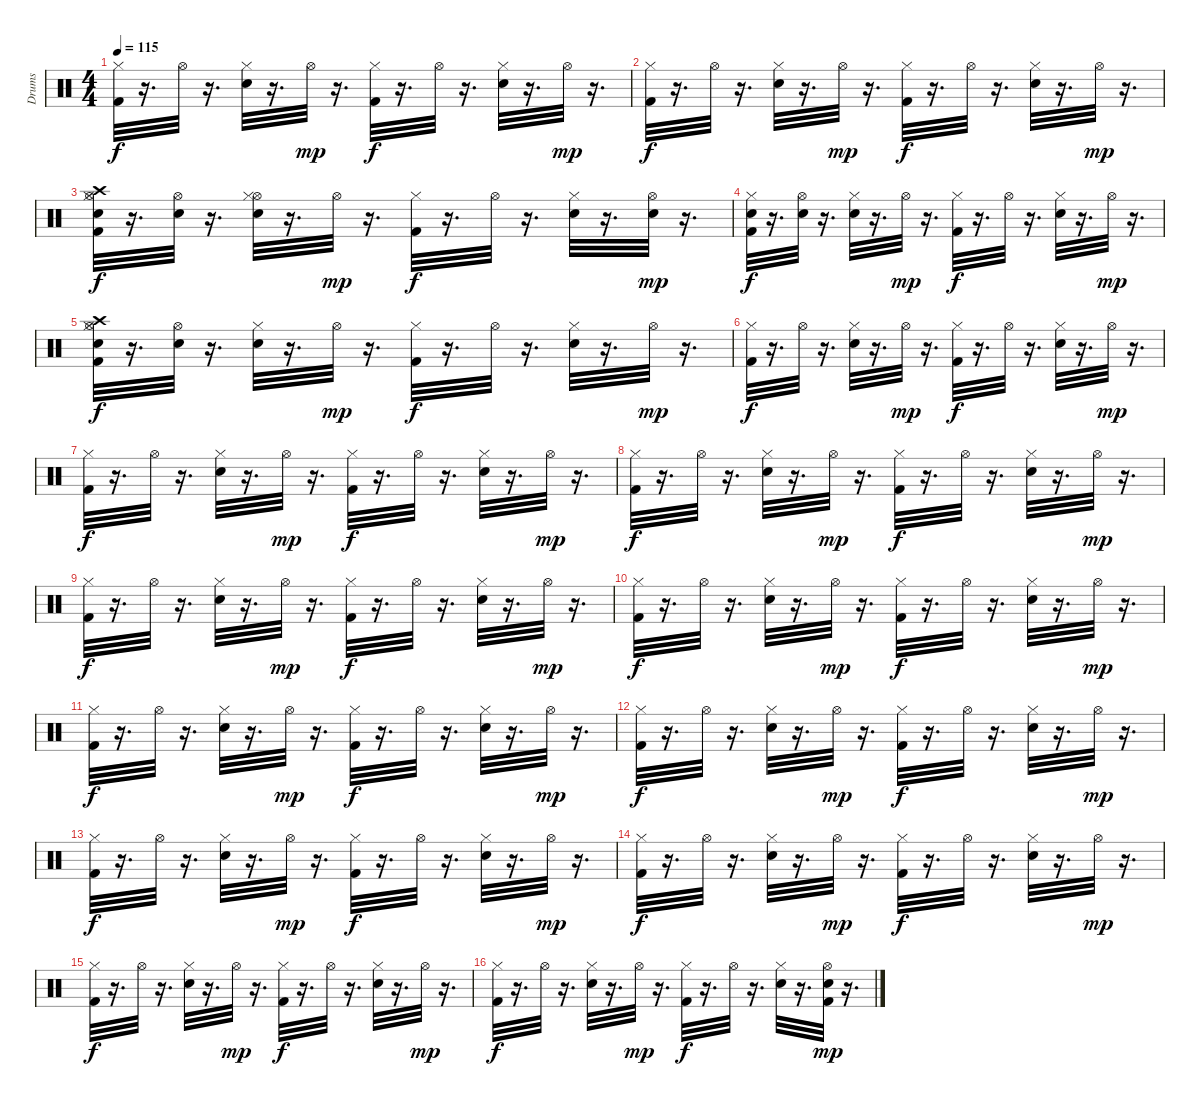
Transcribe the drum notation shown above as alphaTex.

\track ("Drums" "Drums") {instrument percussion}
\staff {score}
\articulation defaults
\ts (4 4)
\tempo 115
\clef neutral
\ks c
("Hi-Hat (closed)" "Kick (hit) 2").32{dy f} r.16{d} "Hi-Hat (open)".32 r.16{d} ("Hi-Hat (closed)" "Snare (hit) 2").32 r.16{d} "Hi-Hat (open)".32{dy mp} r.16{d} ("Kick (hit) 2" "Hi-Hat (closed)").32{dy f} r.16{d} "Hi-Hat (open)".32 r.16{d} ("Hi-Hat (closed)" "Snare (hit) 2").32 r.16{d} "Hi-Hat (open)".32{dy mp} r.16{d} |
("Hi-Hat (closed)" "Kick (hit) 2").32{dy f} r.16{d} "Hi-Hat (open)".32 r.16{d} ("Hi-Hat (closed)" "Snare (hit) 2").32 r.16{d} "Hi-Hat (open)".32{dy mp} r.16{d} ("Kick (hit) 2" "Hi-Hat (closed)").32{dy f} r.16{d} "Hi-Hat (open)".32 r.16{d} ("Hi-Hat (closed)" "Snare (hit) 2").32 r.16{d} "Hi-Hat (open)".32{dy mp} r.16{d} |
("Crash high (hit)" "Hi-Hat (open)" "Snare (hit) 2" "Hi-Hat (closed)" "Kick (hit) 2").32{dy f} r.16{d} ("Snare (hit) 2" "Hi-Hat (open)").32 r.16{d} ("Hi-Hat (open)" "Hi-Hat (closed)" "Snare (hit) 2").32 r.16{d} "Hi-Hat (open)".32{dy mp} r.16{d} ("Kick (hit) 2" "Hi-Hat (closed)").32{dy f} r.16{d} "Hi-Hat (open)".32 r.16{d} ("Hi-Hat (closed)" "Snare (hit) 2").32 r.16{d} ("Snare (hit) 2" "Hi-Hat (open)").32{dy mp} r.16{d} |
("Snare (hit) 2" "Hi-Hat (closed)" "Kick (hit) 2").32{dy f} r.16{d} ("Snare (hit) 2" "Hi-Hat (open)").32 r.16{d} ("Hi-Hat (closed)" "Snare (hit) 2").32 r.16{d} "Hi-Hat (open)".32{dy mp} r.16{d} ("Kick (hit) 2" "Hi-Hat (closed)").32{dy f} r.16{d} "Hi-Hat (open)".32 r.16{d} ("Hi-Hat (closed)" "Snare (hit) 2").32 r.16{d} "Hi-Hat (open)".32{dy mp} r.16{d} |
("Crash high (hit)" "Hi-Hat (open)" "Snare (hit) 2" "Hi-Hat (closed)" "Kick (hit) 2").32{dy f} r.16{d} ("Snare (hit) 2" "Hi-Hat (open)").32 r.16{d} ("Hi-Hat (closed)" "Snare (hit) 2").32 r.16{d} "Hi-Hat (open)".32{dy mp} r.16{d} ("Kick (hit) 2" "Hi-Hat (closed)").32{dy f} r.16{d} "Hi-Hat (open)".32 r.16{d} ("Hi-Hat (closed)" "Snare (hit) 2").32 r.16{d} "Hi-Hat (open)".32{dy mp} r.16{d} |
("Hi-Hat (closed)" "Kick (hit) 2").32{dy f} r.16{d} "Hi-Hat (open)".32 r.16{d} ("Hi-Hat (closed)" "Snare (hit) 2").32 r.16{d} "Hi-Hat (open)".32{dy mp} r.16{d} ("Kick (hit) 2" "Hi-Hat (closed)").32{dy f} r.16{d} "Hi-Hat (open)".32 r.16{d} ("Hi-Hat (closed)" "Snare (hit) 2").32 r.16{d} "Hi-Hat (open)".32{dy mp} r.16{d} |
("Hi-Hat (closed)" "Kick (hit) 2").32{dy f} r.16{d} "Hi-Hat (open)".32 r.16{d} ("Hi-Hat (closed)" "Snare (hit) 2").32 r.16{d} "Hi-Hat (open)".32{dy mp} r.16{d} ("Kick (hit) 2" "Hi-Hat (closed)").32{dy f} r.16{d} "Hi-Hat (open)".32 r.16{d} ("Hi-Hat (closed)" "Snare (hit) 2").32 r.16{d} "Hi-Hat (open)".32{dy mp} r.16{d} |
("Hi-Hat (closed)" "Kick (hit) 2").32{dy f} r.16{d} "Hi-Hat (open)".32 r.16{d} ("Hi-Hat (closed)" "Snare (hit) 2").32 r.16{d} "Hi-Hat (open)".32{dy mp} r.16{d} ("Kick (hit) 2" "Hi-Hat (closed)").32{dy f} r.16{d} "Hi-Hat (open)".32 r.16{d} ("Hi-Hat (closed)" "Snare (hit) 2").32 r.16{d} "Hi-Hat (open)".32{dy mp} r.16{d} |
("Hi-Hat (closed)" "Kick (hit) 2").32{dy f} r.16{d} "Hi-Hat (open)".32 r.16{d} ("Hi-Hat (closed)" "Snare (hit) 2").32 r.16{d} "Hi-Hat (open)".32{dy mp} r.16{d} ("Kick (hit) 2" "Hi-Hat (closed)").32{dy f} r.16{d} "Hi-Hat (open)".32 r.16{d} ("Hi-Hat (closed)" "Snare (hit) 2").32 r.16{d} "Hi-Hat (open)".32{dy mp} r.16{d} |
("Hi-Hat (closed)" "Kick (hit) 2").32{dy f} r.16{d} "Hi-Hat (open)".32 r.16{d} ("Hi-Hat (closed)" "Snare (hit) 2").32 r.16{d} "Hi-Hat (open)".32{dy mp} r.16{d} ("Kick (hit) 2" "Hi-Hat (closed)").32{dy f} r.16{d} "Hi-Hat (open)".32 r.16{d} ("Hi-Hat (closed)" "Snare (hit) 2").32 r.16{d} "Hi-Hat (open)".32{dy mp} r.16{d} |
("Hi-Hat (closed)" "Kick (hit) 2").32{dy f} r.16{d} "Hi-Hat (open)".32 r.16{d} ("Hi-Hat (closed)" "Snare (hit) 2").32 r.16{d} "Hi-Hat (open)".32{dy mp} r.16{d} ("Kick (hit) 2" "Hi-Hat (closed)").32{dy f} r.16{d} "Hi-Hat (open)".32 r.16{d} ("Hi-Hat (closed)" "Snare (hit) 2").32 r.16{d} "Hi-Hat (open)".32{dy mp} r.16{d} |
("Hi-Hat (closed)" "Kick (hit) 2").32{dy f} r.16{d} "Hi-Hat (open)".32 r.16{d} ("Hi-Hat (closed)" "Snare (hit) 2").32 r.16{d} "Hi-Hat (open)".32{dy mp} r.16{d} ("Kick (hit) 2" "Hi-Hat (closed)").32{dy f} r.16{d} "Hi-Hat (open)".32 r.16{d} ("Hi-Hat (closed)" "Snare (hit) 2").32 r.16{d} "Hi-Hat (open)".32{dy mp} r.16{d} |
("Hi-Hat (closed)" "Kick (hit) 2").32{dy f} r.16{d} "Hi-Hat (open)".32 r.16{d} ("Hi-Hat (closed)" "Snare (hit) 2").32 r.16{d} "Hi-Hat (open)".32{dy mp} r.16{d} ("Kick (hit) 2" "Hi-Hat (closed)").32{dy f} r.16{d} "Hi-Hat (open)".32 r.16{d} ("Hi-Hat (closed)" "Snare (hit) 2").32 r.16{d} "Hi-Hat (open)".32{dy mp} r.16{d} |
("Hi-Hat (closed)" "Kick (hit) 2").32{dy f} r.16{d} "Hi-Hat (open)".32 r.16{d} ("Hi-Hat (closed)" "Snare (hit) 2").32 r.16{d} "Hi-Hat (open)".32{dy mp} r.16{d} ("Kick (hit) 2" "Hi-Hat (closed)").32{dy f} r.16{d} "Hi-Hat (open)".32 r.16{d} ("Hi-Hat (closed)" "Snare (hit) 2").32 r.16{d} "Hi-Hat (open)".32{dy mp} r.16{d} |
("Hi-Hat (closed)" "Kick (hit) 2").32{dy f} r.16{d} "Hi-Hat (open)".32 r.16{d} ("Hi-Hat (closed)" "Snare (hit) 2").32 r.16{d} "Hi-Hat (open)".32{dy mp} r.16{d} ("Kick (hit) 2" "Hi-Hat (closed)").32{dy f} r.16{d} "Hi-Hat (open)".32 r.16{d} ("Hi-Hat (closed)" "Snare (hit) 2").32 r.16{d} "Hi-Hat (open)".32{dy mp} r.16{d} |
("Hi-Hat (closed)" "Kick (hit) 2").32{dy f} r.16{d} "Hi-Hat (open)".32 r.16{d} ("Hi-Hat (closed)" "Snare (hit) 2").32 r.16{d} "Hi-Hat (open)".32{dy mp} r.16{d} ("Kick (hit) 2" "Hi-Hat (closed)").32{dy f} r.16{d} "Hi-Hat (open)".32 r.16{d} ("Hi-Hat (closed)" "Snare (hit) 2").32 r.16{d} ("Kick (hit) 2" "Snare (hit) 2" "Hi-Hat (open)").32{dy mp} r.16{d}
